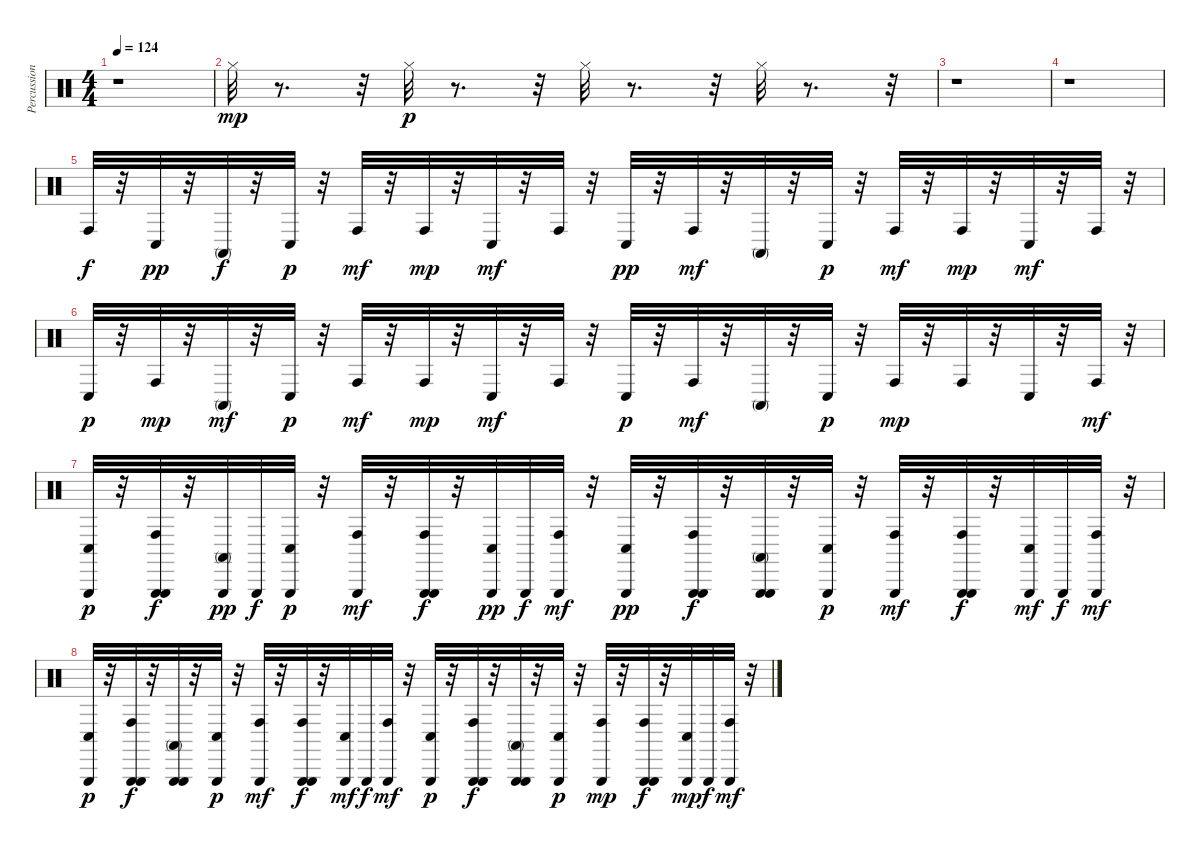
\track ("Percussion" "Percussion") {instrument percussion}
\staff {score}
\articulation defaults
\ts (4 4)
\tempo 124
\clef neutral
\ks c
r.1{dy mp} |
"Hi-Hat (closed)".32 r.8{d} r.32 "Hi-Hat (closed)".32{dy p} r.8{d} r.32 "Hi-Hat (closed)".32 r.8{d} r.32 "Hi-Hat (closed)".32 r.8{d} r.32 |
r.1 |
r.1 |
"Conga high (hit)".32{dy f} r.32 "Conga low (hit)".32{dy pp} r.32 "Conga high (mute)".32{dy f} r.32 "Conga low (hit)".32{dy p} r.32 "Conga high (hit)".32{dy mf} r.32 "Conga high (hit)".32{dy mp} r.32 "Conga low (hit)".32{dy mf} r.32 "Conga high (hit)".32 r.32 "Conga low (hit)".32{dy pp} r.32 "Conga high (hit)".32{dy mf} r.32 "Conga high (mute)".32 r.32 "Conga low (hit)".32{dy p} r.32 "Conga high (hit)".32{dy mf} r.32 "Conga high (hit)".32{dy mp} r.32 "Conga low (hit)".32{dy mf} r.32 "Conga high (hit)".32 r.32 |
"Conga low (hit)".32{dy p} r.32 "Conga high (hit)".32{dy mp} r.32 "Conga high (mute)".32{dy mf} r.32 "Conga low (hit)".32{dy p} r.32 "Conga high (hit)".32{dy mf} r.32 "Conga high (hit)".32{dy mp} r.32 "Conga low (hit)".32{dy mf} r.32 "Conga high (hit)".32 r.32 "Conga low (hit)".32{dy p} r.32 "Conga high (hit)".32{dy mf} r.32 "Conga high (mute)".32 r.32 "Conga low (hit)".32{dy p} r.32 "Conga high (hit)".32{dy mp} r.32 "Conga high (hit)".32 r.32 "Conga low (hit)".32 r.32 "Conga high (hit)".32{dy mf} r.32 |
("Triangle (hit)" "Conga low (hit)").32{dy p} r.32 ("Triangle (hit)" "Conga high (hit)" "Triangle (hit)").32{dy f} r.32 ("Triangle (hit)" "Conga high (mute)").32{dy pp} "Triangle (hit)".32{dy f} ("Triangle (hit)" "Conga low (hit)").32{dy p} r.32 ("Conga high (hit)" "Triangle (hit)").32{dy mf} r.32 ("Triangle (hit)" "Conga high (hit)" "Triangle (hit)").32{dy f} r.32 ("Conga low (hit)" "Triangle (hit)").32{dy pp} "Triangle (hit)".32{dy f} ("Triangle (hit)" "Conga high (hit)").32{dy mf} r.32 ("Triangle (hit)" "Conga low (hit)").32{dy pp} r.32 ("Conga high (hit)" "Triangle (hit)" "Triangle (hit)").32{dy f} r.32 ("Triangle (hit)" "Conga high (mute)" "Triangle (hit)").32 r.32 ("Triangle (hit)" "Conga low (hit)").32{dy p} r.32 ("Triangle (hit)" "Conga high (hit)").32{dy mf} r.32 ("Triangle (hit)" "Conga high (hit)" "Triangle (hit)").32{dy f} r.32 ("Triangle (hit)" "Conga low (hit)").32{dy mf} "Triangle (hit)".32{dy f} ("Triangle (hit)" "Conga high (hit)").32{dy mf} r.32 |
("Triangle (hit)" "Conga low (hit)").32{dy p} r.32 ("Triangle (hit)" "Conga high (hit)" "Triangle (hit)").32{dy f} r.32 ("Conga high (mute)" "Triangle (hit)" "Triangle (hit)").32 r.32 ("Triangle (hit)" "Conga low (hit)").32{dy p} r.32 ("Triangle (hit)" "Conga high (hit)").32{dy mf} r.32 ("Triangle (hit)" "Conga high (hit)" "Triangle (hit)").32{dy f} r.32 ("Triangle (hit)" "Conga low (hit)").32{dy mf} "Triangle (hit)".32{dy f} ("Triangle (hit)" "Conga high (hit)").32{dy mf} r.32 ("Triangle (hit)" "Conga low (hit)").32{dy p} r.32 ("Triangle (hit)" "Conga high (hit)" "Triangle (hit)").32{dy f} r.32 ("Triangle (hit)" "Conga high (mute)" "Triangle (hit)").32 r.32 ("Triangle (hit)" "Conga low (hit)").32{dy p} r.32 ("Triangle (hit)" "Conga high (hit)").32{dy mp} r.32 ("Conga high (hit)" "Triangle (hit)" "Triangle (hit)").32{dy f} r.32 ("Triangle (hit)" "Conga low (hit)").32{dy mp} "Triangle (hit)".32{dy f} ("Triangle (hit)" "Conga high (hit)").32{dy mf} r.32
